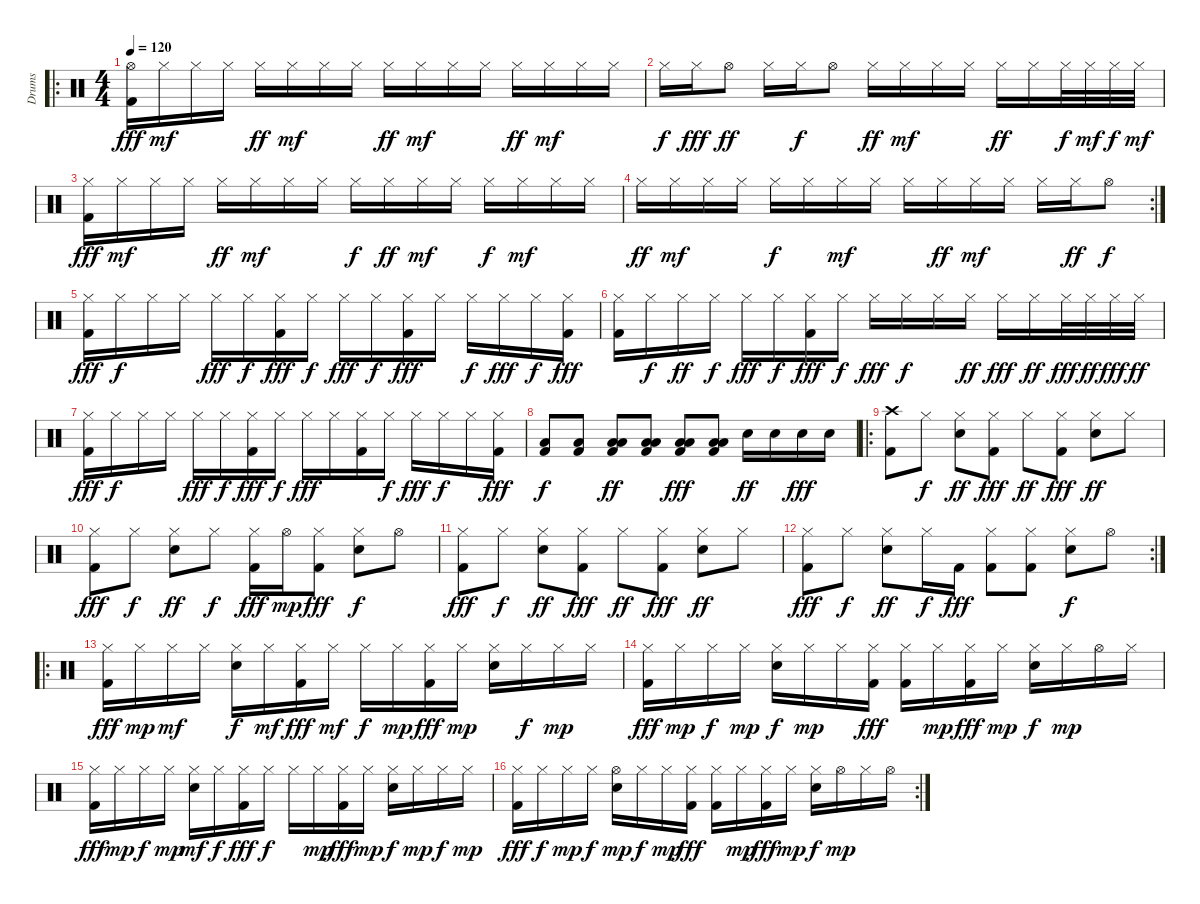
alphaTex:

\track ("Drums" "Drums") {instrument percussion}
\staff {score}
\articulation defaults
\ro
\ts (4 4)
\tempo 120
\clef neutral
\ks c
("Hi-Hat (open)" "Kick (hit) 2").16{dy fff} "Hi-Hat (closed)".16{dy mf} "Hi-Hat (closed)".16 "Hi-Hat (closed)".16 "Hi-Hat (closed)".16{dy ff} "Hi-Hat (closed)".16{dy mf} "Hi-Hat (closed)".16 "Hi-Hat (closed)".16 "Hi-Hat (closed)".16{dy ff} "Hi-Hat (closed)".16{dy mf} "Hi-Hat (closed)".16 "Hi-Hat (closed)".16 "Hi-Hat (closed)".16{dy ff} "Hi-Hat (closed)".16{dy mf} "Hi-Hat (closed)".16 "Hi-Hat (closed)".16 |
"Hi-Hat (closed)".16{dy f} "Hi-Hat (closed)".16{dy fff} "Hi-Hat (open)".8{dy ff} "Hi-Hat (closed)".16 "Hi-Hat (closed)".16{dy f} "Hi-Hat (open)".8 "Hi-Hat (closed)".16{dy ff} "Hi-Hat (closed)".16{dy mf} "Hi-Hat (closed)".16 "Hi-Hat (closed)".16 "Hi-Hat (closed)".16{dy ff} "Hi-Hat (closed)".16 "Hi-Hat (closed)".32{dy f} "Hi-Hat (closed)".32{dy mf} "Hi-Hat (closed)".32{dy f} "Hi-Hat (closed)".32{dy mf} |
("Hi-Hat (closed)" "Kick (hit) 2").16{dy fff} "Hi-Hat (closed)".16{dy mf} "Hi-Hat (closed)".16 "Hi-Hat (closed)".16 "Hi-Hat (closed)".16{dy ff} "Hi-Hat (closed)".16{dy mf} "Hi-Hat (closed)".16 "Hi-Hat (closed)".16 "Hi-Hat (closed)".16{dy f} "Hi-Hat (closed)".16{dy ff} "Hi-Hat (closed)".16{dy mf} "Hi-Hat (closed)".16 "Hi-Hat (closed)".16{dy f} "Hi-Hat (closed)".16{dy mf} "Hi-Hat (closed)".16 "Hi-Hat (closed)".16 |
\rc 2 "Hi-Hat (closed)".16{dy ff} "Hi-Hat (closed)".16{dy mf} "Hi-Hat (closed)".16 "Hi-Hat (closed)".16 "Hi-Hat (closed)".16{dy f} "Hi-Hat (closed)".16 "Hi-Hat (closed)".16{dy mf} "Hi-Hat (closed)".16 "Hi-Hat (closed)".16 "Hi-Hat (closed)".16{dy ff} "Hi-Hat (closed)".16{dy mf} "Hi-Hat (closed)".16 "Hi-Hat (closed)".16 "Hi-Hat (closed)".16{dy ff} "Hi-Hat (open)".8{dy f}
|
("Hi-Hat (closed)" "Kick (hit) 2").16{dy fff} "Hi-Hat (closed)".16{dy f} "Hi-Hat (closed)".16 "Hi-Hat (closed)".16 "Hi-Hat (closed)".16{dy fff} "Hi-Hat (closed)".16{dy f} ("Hi-Hat (closed)" "Kick (hit) 2").16{dy fff} "Hi-Hat (closed)".16{dy f} "Hi-Hat (closed)".16{dy fff} "Hi-Hat (closed)".16{dy f} ("Hi-Hat (closed)" "Kick (hit) 2").16{dy fff} "Hi-Hat (closed)".16 "Hi-Hat (closed)".16{dy f} "Hi-Hat (closed)".16{dy fff} "Hi-Hat (closed)".16{dy f} ("Hi-Hat (closed)" "Kick (hit) 2").16{dy fff} |
("Hi-Hat (closed)" "Kick (hit) 2").16 "Hi-Hat (closed)".16{dy f} "Hi-Hat (closed)".16{dy ff} "Hi-Hat (closed)".16{dy f} "Hi-Hat (closed)".16{dy fff} "Hi-Hat (closed)".16{dy f} ("Hi-Hat (closed)" "Kick (hit) 2").16{dy fff} "Hi-Hat (closed)".16{dy f} "Hi-Hat (closed)".16{dy fff} "Hi-Hat (closed)".16{dy f} "Hi-Hat (closed)".16 "Hi-Hat (closed)".16{dy ff} "Hi-Hat (closed)".16{dy fff} "Hi-Hat (closed)".16{dy ff} "Hi-Hat (closed)".32{dy fff} "Hi-Hat (closed)".32{dy ff} "Hi-Hat (closed)".32{dy fff} "Hi-Hat (closed)".32{dy ff} |
("Hi-Hat (closed)" "Kick (hit) 2").16{dy fff} "Hi-Hat (closed)".16{dy f} "Hi-Hat (closed)".16 "Hi-Hat (closed)".16 "Hi-Hat (closed)".16{dy fff} "Hi-Hat (closed)".16{dy f} ("Hi-Hat (closed)" "Kick (hit) 2").16{dy fff} "Hi-Hat (closed)".16{dy f} "Hi-Hat (closed)".16{dy fff} "Hi-Hat (closed)".16 ("Hi-Hat (closed)" "Kick (hit) 2").16 "Hi-Hat (closed)".16{dy f} "Hi-Hat (closed)".16{dy fff} "Hi-Hat (closed)".16{dy f} "Hi-Hat (closed)".16 ("Hi-Hat (closed)" "Kick (hit) 2").16{dy fff} |
("Low Tom (hit)" "Kick (hit) 2").8{dy f} ("Low Tom (hit)" "Kick (hit) 2").8 ("Low Tom (hit)" "Low Floor Tom (hit)" "Kick (hit) 2").8{dy ff} ("Low Tom (hit)" "Low Floor Tom (hit)" "Kick (hit) 2").8 ("Low Tom (hit)" "Low Floor Tom (hit)" "Kick (hit) 2").8{dy fff} ("Low Tom (hit)" "Low Floor Tom (hit)" "Kick (hit) 2").8 "Electric Snare (hit)".16{dy ff} "Electric Snare (hit)".16 "Electric Snare (hit)".16{dy fff} "Electric Snare (hit)".16 |
\ro
("Crash high (hit)" "Kick (hit) 2").8 "Hi-Hat (closed)".8{dy f} ("Hi-Hat (closed)" "Electric Snare (hit)").8{dy ff} ("Hi-Hat (closed)" "Kick (hit) 2").8{dy fff} "Hi-Hat (closed)".8{dy ff} ("Hi-Hat (closed)" "Kick (hit) 2").8{dy fff} ("Hi-Hat (closed)" "Electric Snare (hit)").8{dy ff} "Hi-Hat (closed)".8 |
("Hi-Hat (closed)" "Kick (hit) 2").8{dy fff} "Hi-Hat (closed)".8{dy f} ("Hi-Hat (closed)" "Electric Snare (hit)").8{dy ff} "Hi-Hat (closed)".8{dy f} ("Hi-Hat (closed)" "Kick (hit) 2").16{dy fff} "Hi-Hat (open)".16{dy mp} ("Hi-Hat (closed)" "Kick (hit) 2").8{dy fff} ("Hi-Hat (closed)" "Electric Snare (hit)").8{dy f} "Hi-Hat (open)".8 |
("Hi-Hat (closed)" "Kick (hit) 2").8{dy fff} "Hi-Hat (closed)".8{dy f} ("Hi-Hat (closed)" "Electric Snare (hit)").8{dy ff} ("Hi-Hat (closed)" "Kick (hit) 2").8{dy fff} "Hi-Hat (closed)".8{dy ff} ("Hi-Hat (closed)" "Kick (hit) 2").8{dy fff} ("Hi-Hat (closed)" "Electric Snare (hit)").8{dy ff} "Hi-Hat (closed)".8 |
\rc 2
("Hi-Hat (closed)" "Kick (hit) 2").8{dy fff} "Hi-Hat (closed)".8{dy f} ("Hi-Hat (closed)" "Electric Snare (hit)").8{dy ff} "Hi-Hat (closed)".16{dy f} "Kick (hit) 2".16{dy fff} ("Hi-Hat (closed)" "Kick (hit) 2").8 ("Hi-Hat (closed)" "Kick (hit) 2").8 ("Hi-Hat (closed)" "Electric Snare (hit)").8{dy f} "Hi-Hat (open)".8 |
\ro
("Hi-Hat (closed)" "Kick (hit) 2").16{dy fff} "Hi-Hat (closed)".16{dy mp} "Hi-Hat (closed)".16{dy mf} "Hi-Hat (closed)".16 ("Hi-Hat (closed)" "Snare (hit) 2").16{dy f} "Hi-Hat (closed)".16{dy mf} ("Hi-Hat (closed)" "Kick (hit) 2").16{dy fff} "Hi-Hat (closed)".16{dy mf} "Hi-Hat (closed)".16{dy f} "Hi-Hat (closed)".16{dy mp} ("Hi-Hat (closed)" "Kick (hit) 2").16{dy fff} "Hi-Hat (closed)".16{dy mp} ("Hi-Hat (closed)" "Snare (hit) 2").16 "Hi-Hat (closed)".16{dy f} "Hi-Hat (closed)".16{dy mp} "Hi-Hat (closed)".16 |
("Hi-Hat (closed)" "Kick (hit) 2").16{dy fff} "Hi-Hat (closed)".16{dy mp} "Hi-Hat (closed)".16{dy f} "Hi-Hat (closed)".16{dy mp} ("Hi-Hat (closed)" "Snare (hit) 2").16{dy f} "Hi-Hat (closed)".16{dy mp} "Hi-Hat (closed)".16 ("Hi-Hat (closed)" "Kick (hit) 2").16{dy fff} ("Hi-Hat (closed)" "Kick (hit) 2").16 "Hi-Hat (closed)".16{dy mp} ("Hi-Hat (closed)" "Kick (hit) 2").16{dy fff} "Hi-Hat (closed)".16{dy mp} ("Hi-Hat (closed)" "Snare (hit) 2").16{dy f} "Hi-Hat (closed)".16{dy mp} "Hi-Hat (open)".16 "Hi-Hat (closed)".16 |
("Hi-Hat (closed)" "Kick (hit) 2").16{dy fff} "Hi-Hat (closed)".16{dy mp} "Hi-Hat (closed)".16{dy f} "Hi-Hat (closed)".16{dy mp} ("Hi-Hat (closed)" "Snare (hit) 2").16{dy mf} "Hi-Hat (closed)".16{dy f} ("Hi-Hat (closed)" "Kick (hit) 2").16{dy fff} "Hi-Hat (closed)".16{dy f} "Hi-Hat (closed)".16 "Hi-Hat (closed)".16{dy mp} ("Hi-Hat (closed)" "Kick (hit) 2").16{dy fff} "Hi-Hat (closed)".16{dy mp} ("Hi-Hat (closed)" "Snare (hit) 2").16{dy f} "Hi-Hat (closed)".16{dy mp} "Hi-Hat (closed)".16{dy f} "Hi-Hat (closed)".16{dy mp} |
\rc 2
("Hi-Hat (closed)" "Kick (hit) 2").16{dy fff} "Hi-Hat (closed)".16{dy f} "Hi-Hat (closed)".16{dy mp} "Hi-Hat (closed)".16{dy f} ("Hi-Hat (open)" "Snare (hit) 2").16{dy mp} "Hi-Hat (closed)".16{dy f} "Hi-Hat (closed)".16{dy mp} ("Hi-Hat (closed)" "Kick (hit) 2").16{dy fff} ("Hi-Hat (closed)" "Kick (hit) 2").16 "Hi-Hat (closed)".16{dy mp} ("Hi-Hat (closed)" "Kick (hit) 2").16{dy fff} "Hi-Hat (closed)".16{dy mp} ("Hi-Hat (closed)" "Snare (hit) 2").16{dy f} "Hi-Hat (open)".16{dy mp} "Hi-Hat (closed)".16 "Hi-Hat (open)".16
